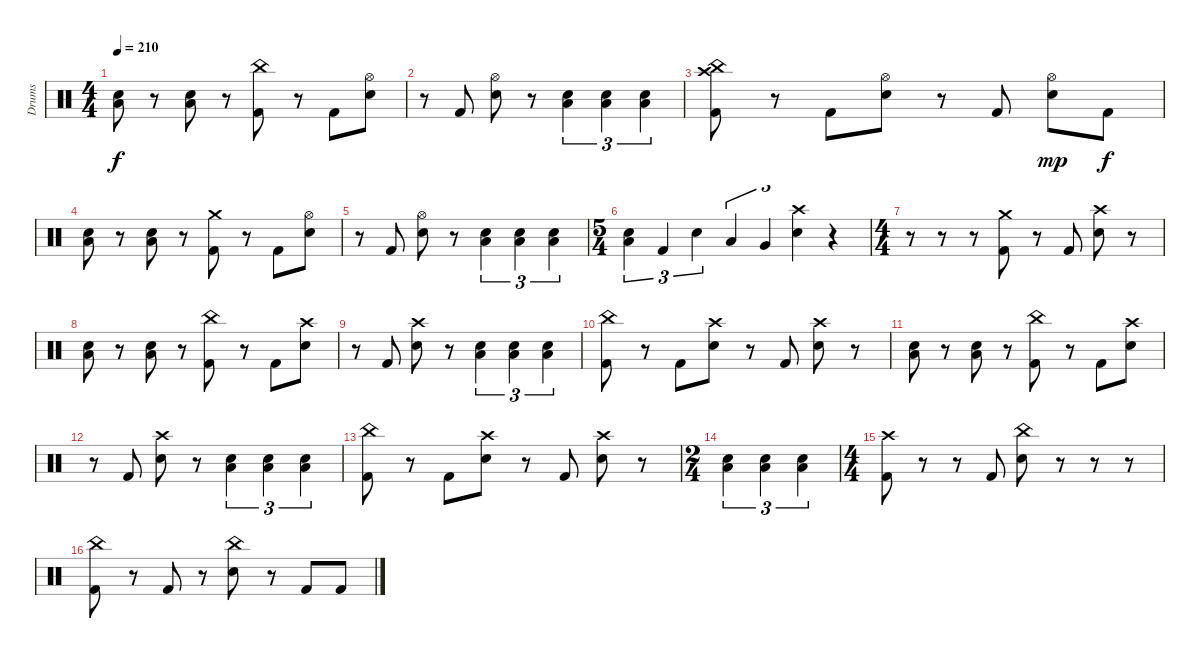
\track ("Drums" "Drums") {instrument percussion}
\staff {score}
\articulation defaults
\ts (4 4)
\tempo 210
\clef neutral
\ks c
("Low Floor Tom (hit)" "Electric Snare (hit)").8{dy f} r.8 ("Low Floor Tom (hit)" "Electric Snare (hit)").8 r.8 ("China (hit)" "Kick (hit) 2").8 r.8 "Kick (hit) 2".8 ("Hi-Hat (open)" "Electric Snare (hit)").8 |
r.8 "Kick (hit) 2".8 ("Hi-Hat (open)" "Electric Snare (hit)").8 r.8 ("Low Floor Tom (hit)" "Electric Snare (hit)").4{tu (3 2)} ("Low Floor Tom (hit)" "Electric Snare (hit)").4{tu (3 2)} ("Low Floor Tom (hit)" "Electric Snare (hit)").4{tu (3 2)} |
("Crash high (hit)" "China (hit)" "Kick (hit) 2").8 r.8 "Kick (hit) 2".8 ("Hi-Hat (open)" "Electric Snare (hit)").8 r.8 "Kick (hit) 2".8 ("Hi-Hat (open)" "Electric Snare (hit)").8{dy mp} "Kick (hit) 2".8{dy f} |
("Low Floor Tom (hit)" "Electric Snare (hit)").8 r.8 ("Low Floor Tom (hit)" "Electric Snare (hit)").8 r.8 ("Crash medium (hit)" "Kick (hit) 2").8 r.8 "Kick (hit) 2".8 ("Hi-Hat (open)" "Electric Snare (hit)").8 |
r.8 "Kick (hit) 2".8 ("Hi-Hat (open)" "Electric Snare (hit)").8 r.8 ("Low Floor Tom (hit)" "Electric Snare (hit)").4{tu (3 2)} ("Low Floor Tom (hit)" "Electric Snare (hit)").4{tu (3 2)} ("Low Floor Tom (hit)" "Electric Snare (hit)").4{tu (3 2)} |
\ts (5 4)
("Low Floor Tom (hit)" "Electric Snare (hit)").4{tu (3 2)} "Kick (hit) 2".4{tu (3 2)} "Electric Snare (hit)".4{tu (3 2)} "Low Tom (hit)".4{tu (3 2)} "Very Low Tom (hit)".4{tu (3 2)} ("Crash high (hit)" "Electric Snare (hit)").4{tu (3 2)} r.4 |
\ts (4 4)
r.8 r.8 r.8 ("Crash medium (hit)" "Kick (hit) 2").8 r.8 "Kick (hit) 2".8 ("Crash high (hit)" "Electric Snare (hit)").8 r.8 |
("Low Floor Tom (hit)" "Electric Snare (hit)").8 r.8 ("Low Floor Tom (hit)" "Electric Snare (hit)").8 r.8 ("China (hit)" "Kick (hit) 2").8 r.8 "Kick (hit) 2".8 ("Crash high (hit)" "Electric Snare (hit)").8 |
r.8 "Kick (hit) 2".8 ("Crash high (hit)" "Electric Snare (hit)").8 r.8 ("Low Floor Tom (hit)" "Electric Snare (hit)").4{tu (3 2)} ("Low Floor Tom (hit)" "Electric Snare (hit)").4{tu (3 2)} ("Low Floor Tom (hit)" "Electric Snare (hit)").4{tu (3 2)} |
("China (hit)" "Kick (hit) 2").8 r.8 "Kick (hit) 2".8 ("Crash high (hit)" "Electric Snare (hit)").8 r.8 "Kick (hit) 2".8 ("Crash high (hit)" "Electric Snare (hit)").8 r.8 |
("Low Floor Tom (hit)" "Electric Snare (hit)").8 r.8 ("Low Floor Tom (hit)" "Electric Snare (hit)").8 r.8 ("China (hit)" "Kick (hit) 2").8 r.8 "Kick (hit) 2".8 ("Crash high (hit)" "Electric Snare (hit)").8 |
r.8 "Kick (hit) 2".8 ("Crash high (hit)" "Electric Snare (hit)").8 r.8 ("Low Floor Tom (hit)" "Electric Snare (hit)").4{tu (3 2)} ("Low Floor Tom (hit)" "Electric Snare (hit)").4{tu (3 2)} ("Low Floor Tom (hit)" "Electric Snare (hit)").4{tu (3 2)} |
("China (hit)" "Kick (hit) 2").8 r.8 "Kick (hit) 2".8 ("Crash high (hit)" "Electric Snare (hit)").8 r.8 "Kick (hit) 2".8 ("Crash high (hit)" "Electric Snare (hit)").8 r.8 |
\ts (2 4)
("Low Floor Tom (hit)" "Electric Snare (hit)").4{tu (3 2)} ("Low Floor Tom (hit)" "Electric Snare (hit)").4{tu (3 2)} ("Low Floor Tom (hit)" "Electric Snare (hit)").4{tu (3 2)} |
\ts (4 4)
("Crash high (hit)" "Kick (hit) 2").8 r.8 r.8 "Kick (hit) 2".8 ("China (hit)" "Electric Snare (hit)").8 r.8 r.8 r.8 |
("China (hit)" "Kick (hit) 2").8 r.8 "Kick (hit) 2".8 r.8 ("China (hit)" "Electric Snare (hit)").8 r.8 "Kick (hit) 2".8 "Kick (hit) 2".8
